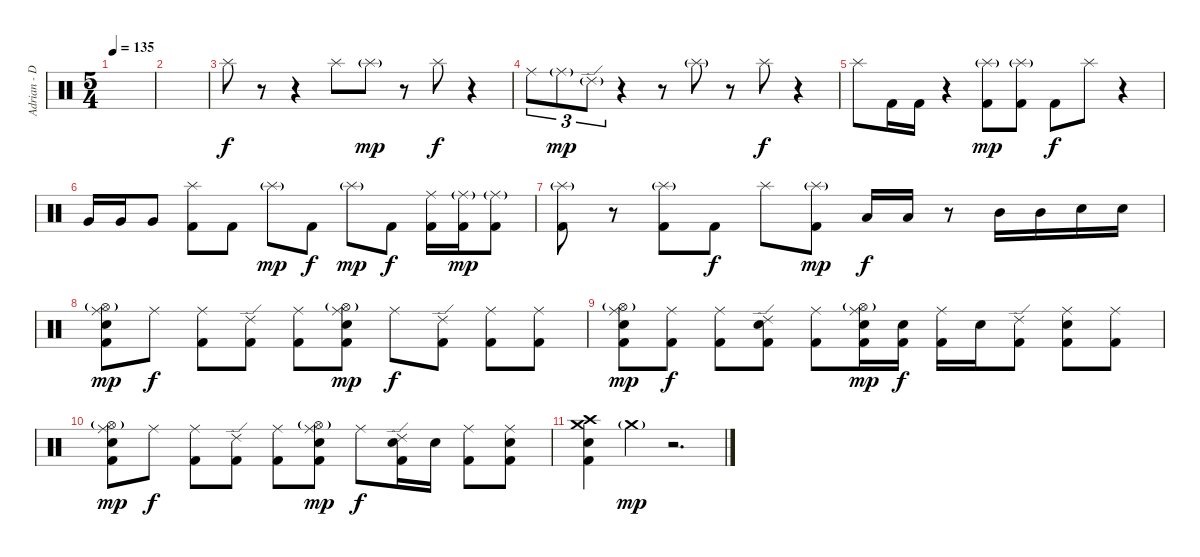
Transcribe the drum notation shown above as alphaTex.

\track ("Adrian - Drums" "Adrian - D") {instrument percussion}
\staff {score}
\articulation defaults
\ts (5 4)
\tempo 135
\clef neutral
\ks c
|
|
"Splash (hit)".8 r.8 r.4 "Splash (hit)".8 "Splash (hit)"{g}.8{dy mp} r.8 "Splash (hit)".8{dy f} r.4 |
"Ride (middle)".8{tu (3 2)} "Ride (middle)"{g}.8{tu (3 2) dy mp} "Ride (edge) 2"{g}.8{tu (3 2)} r.4 r.8 "Splash (hit)"{g}.8 r.8 "Splash (hit)".8{dy f} r.4 |
"Splash (hit)".8 "Kick (hit) 2".16 "Kick (hit) 2".16 r.4 ("Splash (hit)"{g} "Kick (hit) 2").8{dy mp} ("Splash (hit)"{g} "Kick (hit) 2").8 "Kick (hit) 2".8{dy f} "Splash (hit)".8 r.4 |
"Very Low Tom (hit)".16 "Very Low Tom (hit)".16 "Very Low Tom (hit)".8 ("Splash (hit)" "Kick (hit) 2").8 "Kick (hit) 2".8 "Splash (hit)"{g}.8{dy mp} "Kick (hit) 2".8{dy f} "Splash (hit)"{g}.8{dy mp} "Kick (hit) 2".8{dy f} ("Ride (middle)" "Kick (hit) 2").16 ("Ride (middle)"{g} "Kick (hit) 2").16{dy mp} ("Ride (middle)"{g} "Kick (hit) 2").8 |
("Splash (hit)"{g} "Kick (hit) 2").8 r.8 ("Splash (hit)"{g} "Kick (hit) 2").8 "Kick (hit) 2".8{dy f} "Splash (hit)".8 ("Splash (hit)"{g} "Kick (hit) 2").8{dy mp} "Low Tom (hit)".16{dy f} "Low Tom (hit)".16 r.8 "Mid Tom (hit)".16 "Mid Tom (hit)".16 "Snare (hit) 2".16 "Snare (hit) 2".16 |
("Hi-Hat (open)"{g} "Ride (middle)" "Snare (hit) 2" "Kick (hit) 2").8{dy mp} "Ride (middle)".8{dy f} ("Ride (middle)" "Kick (hit) 2").8 ("Ride (edge) 2" "Kick (hit) 2").8 ("Ride (middle)" "Kick (hit) 2").8 ("Hi-Hat (open)"{g} "Ride (middle)" "Snare (hit) 2" "Kick (hit) 2").8{dy mp} "Ride (middle)".8{dy f} ("Ride (edge) 2" "Kick (hit) 2").8 ("Ride (middle)" "Kick (hit) 2").8 ("Ride (middle)" "Kick (hit) 2").8 |
("Hi-Hat (open)"{g} "Ride (middle)" "Snare (hit) 2" "Kick (hit) 2").8{dy mp} ("Ride (middle)" "Kick (hit) 2").8{dy f} ("Ride (middle)" "Kick (hit) 2").8 ("Ride (edge) 2" "Snare (hit) 2" "Kick (hit) 2").8 ("Ride (middle)" "Kick (hit) 2").8 ("Hi-Hat (open)"{g} "Ride (middle)" "Snare (hit) 2" "Kick (hit) 2").16{dy mp} ("Snare (hit) 2" "Kick (hit) 2").16{dy f} ("Ride (middle)" "Kick (hit) 2").16 "Snare (hit) 2".16 ("Ride (edge) 2" "Kick (hit) 2").8 ("Ride (middle)" "Snare (hit) 2" "Kick (hit) 2").8 ("Ride (middle)" "Kick (hit) 2").8 |
("Hi-Hat (open)"{g} "Ride (middle)" "Snare (hit) 2" "Kick (hit) 2").8{dy mp} "Ride (middle)".8{dy f} ("Ride (middle)" "Kick (hit) 2").8 ("Ride (edge) 2" "Kick (hit) 2").8 ("Ride (middle)" "Kick (hit) 2").8 ("Hi-Hat (open)"{g} "Ride (middle)" "Snare (hit) 2" "Kick (hit) 2").8{dy mp} "Ride (middle)".8{dy f} ("Ride (edge) 2" "Snare (hit) 2" "Kick (hit) 2").16 "Snare (hit) 2".16 ("Ride (middle)" "Kick (hit) 2").8 ("Ride (middle)" "Snare (hit) 2" "Kick (hit) 2").8 |
("Crash medium (hit)" "Crash high (hit)" "Snare (hit) 2" "Kick (hit) 2").4 "Crash medium (hit)"{g}.4{dy mp} r.2{d}
